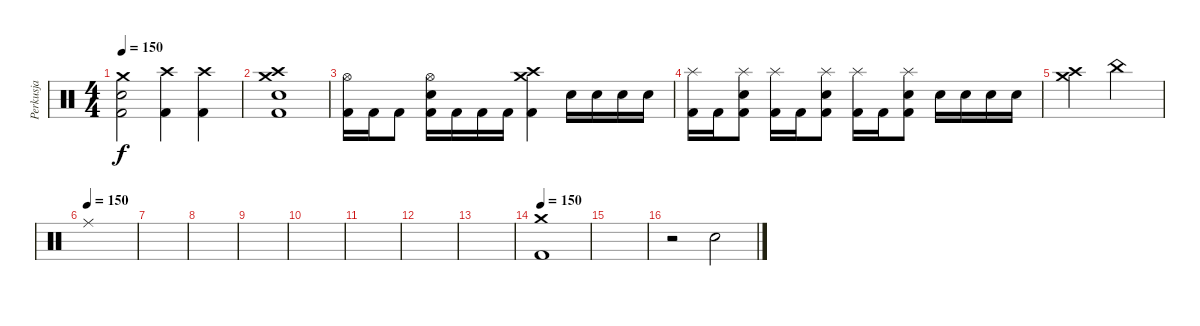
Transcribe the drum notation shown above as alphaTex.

\track ("Perkusja" "Perkusja") {instrument percussion}
\staff {score}
\articulation defaults
\ts (4 4)
\tempo 150
\clef neutral
\ks c
("Crash medium (hit)" "Snare (hit) 2" "Kick (hit) 2").2{dy f} ("Kick (hit) 2" "Crash high (hit)").4 ("Kick (hit) 2" "Crash high (hit)").4 |
("Crash medium (hit)" "Crash high (hit)" "Kick (hit) 2" "Electric Snare (hit)").1 |
("Hi-Hat (open)" "Kick (hit) 2").16 "Kick (hit) 2".16 "Kick (hit) 2".8 ("Hi-Hat (open)" "Electric Snare (hit)" "Kick (hit) 2").16 "Kick (hit) 2".16 "Kick (hit) 2".16 "Kick (hit) 2".16 ("Crash high (hit)" "Crash medium (hit)" "Kick (hit) 2").4 "Electric Snare (hit)".16 "Electric Snare (hit)".16 "Electric Snare (hit)".16 "Electric Snare (hit)".16 |
("Splash (hit)" "Kick (hit) 2").16 "Kick (hit) 2".16 ("Splash (hit)" "Electric Snare (hit)" "Kick (hit) 2").8 ("Splash (hit)" "Kick (hit) 2").16 "Kick (hit) 2".16 ("Splash (hit)" "Electric Snare (hit)" "Kick (hit) 2").8 ("Splash (hit)" "Kick (hit) 2").16 "Kick (hit) 2".16 ("Splash (hit)" "Electric Snare (hit)" "Kick (hit) 2").8 "Electric Snare (hit)".16 "Electric Snare (hit)".16 "Electric Snare (hit)".16 "Electric Snare (hit)".16 |
("Crash medium (hit)" "Crash high (hit)").2 "China (hit)".2 |
\tempo (150)
"Ride (middle)".1 |
|
|
|
|
|
|
|
\tempo 150
("Crash medium (hit)" "Kick (hit) 2").1 |
|
r.2 "Electric Snare (hit)".2
